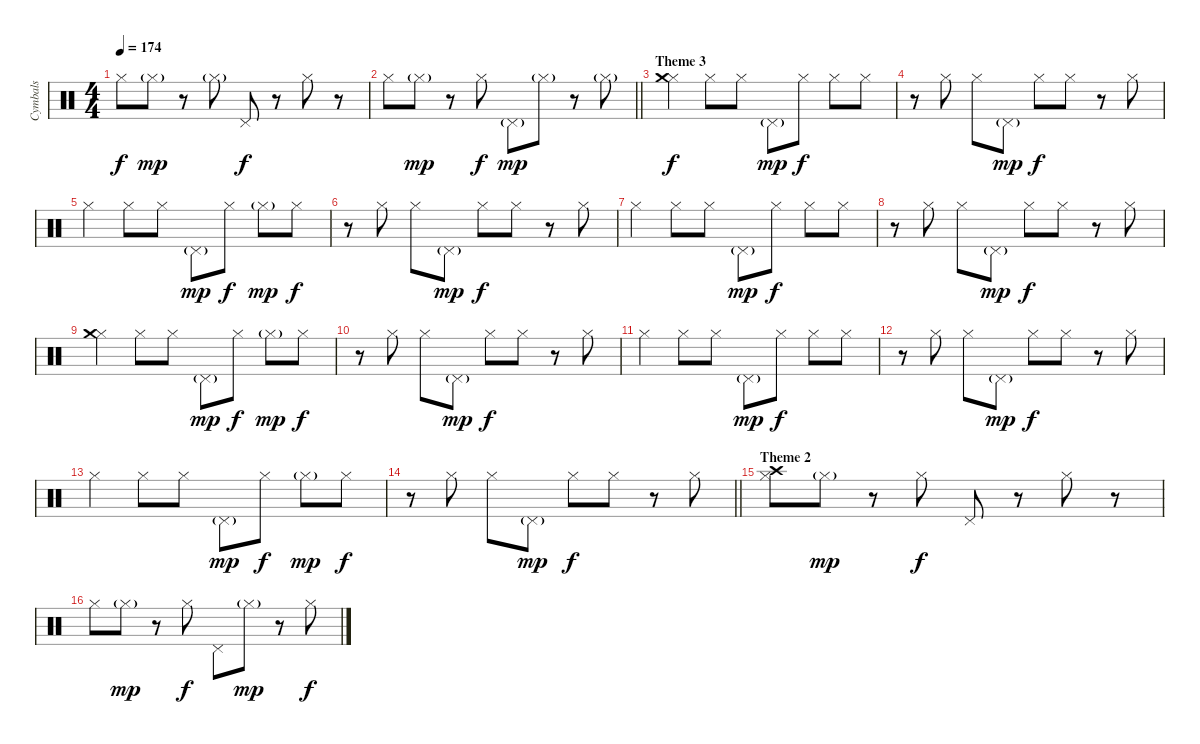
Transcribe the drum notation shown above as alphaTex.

\track ("Cymbals" "Cymbals") {instrument percussion}
\staff {score}
\articulation defaults
\ts (4 4)
\tempo 174
\clef neutral
\ks c "Hi-Hat (closed)".8{dy f} "Hi-Hat (closed)"{g}.8{dy mp}
r.8 "Hi-Hat (closed)"{g}.8 "Pedal Hi-Hat (hit)".8{dy f} r.8 "Hi-Hat (closed)".8 r.8 |
\barLineRight lightlight "Hi-Hat (closed)".8 "Hi-Hat (closed)"{g}.8{dy mp}
r.8 "Hi-Hat (closed)".8{dy f} "Pedal Hi-Hat (hit)"{g}.8{dy mp} "Hi-Hat (closed)"{g}.8 r.8 "Hi-Hat (closed)"{g}.8 |
\section ("" "Theme 3")
("Hi-Hat (closed)" "Crash medium (hit)").4{dy f} "Hi-Hat (closed)".8 "Hi-Hat (closed)".8 "Pedal Hi-Hat (hit)"{g}.8{dy mp} "Hi-Hat (closed)".8{dy f} "Hi-Hat (closed)".8 "Hi-Hat (closed)".8 |
r.8 "Hi-Hat (closed)".8 "Hi-Hat (closed)".8 "Pedal Hi-Hat (hit)"{g}.8{dy mp} "Hi-Hat (closed)".8{dy f} "Hi-Hat (closed)".8 r.8 "Hi-Hat (closed)".8 |
"Hi-Hat (closed)".4 "Hi-Hat (closed)".8 "Hi-Hat (closed)".8 "Pedal Hi-Hat (hit)"{g}.8{dy mp} "Hi-Hat (closed)".8{dy f} "Hi-Hat (closed)"{g}.8{dy mp} "Hi-Hat (closed)".8{dy f} |
r.8 "Hi-Hat (closed)".8 "Hi-Hat (closed)".8 "Pedal Hi-Hat (hit)"{g}.8{dy mp} "Hi-Hat (closed)".8{dy f} "Hi-Hat (closed)".8 r.8 "Hi-Hat (closed)".8 |
"Hi-Hat (closed)".4 "Hi-Hat (closed)".8 "Hi-Hat (closed)".8 "Pedal Hi-Hat (hit)"{g}.8{dy mp} "Hi-Hat (closed)".8{dy f} "Hi-Hat (closed)".8 "Hi-Hat (closed)".8 |
r.8 "Hi-Hat (closed)".8 "Hi-Hat (closed)".8 "Pedal Hi-Hat (hit)"{g}.8{dy mp} "Hi-Hat (closed)".8{dy f} "Hi-Hat (closed)".8 r.8 "Hi-Hat (closed)".8 |
("Hi-Hat (closed)" "Crash medium (hit)").4 "Hi-Hat (closed)".8 "Hi-Hat (closed)".8 "Pedal Hi-Hat (hit)"{g}.8{dy mp} "Hi-Hat (closed)".8{dy f} "Hi-Hat (closed)"{g}.8{dy mp} "Hi-Hat (closed)".8{dy f} |
r.8 "Hi-Hat (closed)".8 "Hi-Hat (closed)".8 "Pedal Hi-Hat (hit)"{g}.8{dy mp} "Hi-Hat (closed)".8{dy f} "Hi-Hat (closed)".8 r.8 "Hi-Hat (closed)".8 |
"Hi-Hat (closed)".4 "Hi-Hat (closed)".8 "Hi-Hat (closed)".8 "Pedal Hi-Hat (hit)"{g}.8{dy mp} "Hi-Hat (closed)".8{dy f} "Hi-Hat (closed)".8 "Hi-Hat (closed)".8 |
r.8 "Hi-Hat (closed)".8 "Hi-Hat (closed)".8 "Pedal Hi-Hat (hit)"{g}.8{dy mp} "Hi-Hat (closed)".8{dy f} "Hi-Hat (closed)".8 r.8 "Hi-Hat (closed)".8 |
"Hi-Hat (closed)".4 "Hi-Hat (closed)".8 "Hi-Hat (closed)".8 "Pedal Hi-Hat (hit)"{g}.8{dy mp} "Hi-Hat (closed)".8{dy f} "Hi-Hat (closed)"{g}.8{dy mp} "Hi-Hat (closed)".8{dy f} |
\barLineRight lightlight
r.8 "Hi-Hat (closed)".8 "Hi-Hat (closed)".8 "Pedal Hi-Hat (hit)"{g}.8{dy mp} "Hi-Hat (closed)".8{dy f} "Hi-Hat (closed)".8 r.8 "Hi-Hat (closed)".8 |
\section ("" "Theme 2")
("Crash high (hit)" "Hi-Hat (closed)").8 "Hi-Hat (closed)"{g}.8{dy mp} r.8 "Hi-Hat (closed)".8{dy f} "Pedal Hi-Hat (hit)".8 r.8 "Hi-Hat (closed)".8 r.8 |
"Hi-Hat (closed)".8 "Hi-Hat (closed)"{g}.8{dy mp} r.8 "Hi-Hat (closed)".8{dy f} "Pedal Hi-Hat (hit)".8 "Hi-Hat (closed)"{g}.8{dy mp} r.8 "Hi-Hat (closed)".8{dy f}
